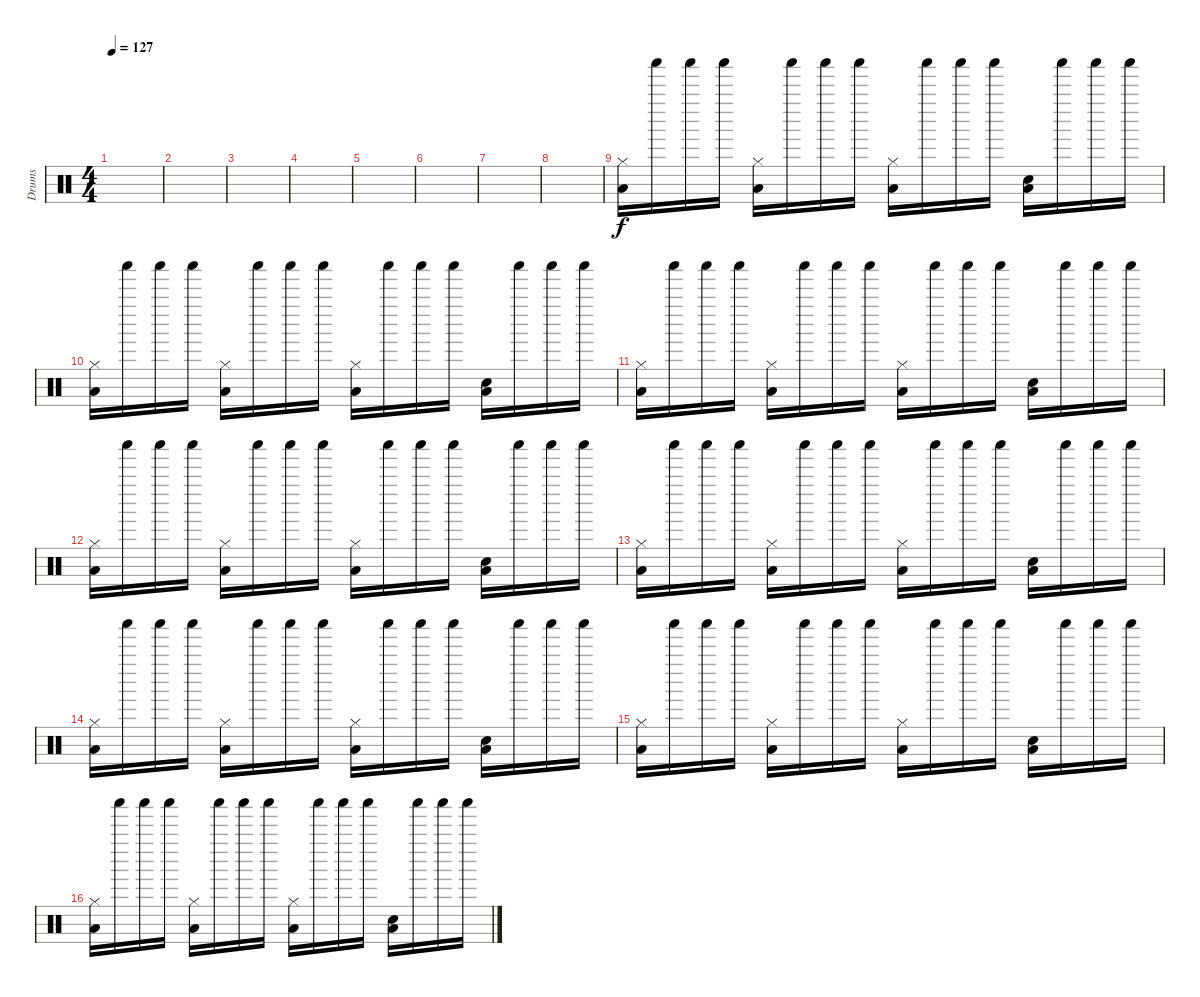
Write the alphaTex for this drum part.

\track ("Drums" "Drums") {instrument percussion}
\staff {score}
\articulation defaults
\ts (4 4)
\tempo 127
\clef neutral
\ks c
|
|
|
|
|
|
|
|
("Hi-Hat (closed)" "Low Tom (hit)").16 "Shaker (hit)".16 "Shaker (hit)".16 "Shaker (hit)".16 ("Hi-Hat (closed)" "Low Tom (hit)").16 "Shaker (hit)".16 "Shaker (hit)".16 "Shaker (hit)".16 ("Hi-Hat (closed)" "Low Tom (hit)").16 "Shaker (hit)".16 "Shaker (hit)".16 "Shaker (hit)".16 ("Hand Clap (hit)" "Low Tom (hit)").16 "Shaker (hit)".16 "Shaker (hit)".16 "Shaker (hit)".16 |
("Hi-Hat (closed)" "Low Tom (hit)").16 "Shaker (hit)".16 "Shaker (hit)".16 "Shaker (hit)".16 ("Hi-Hat (closed)" "Low Tom (hit)").16 "Shaker (hit)".16 "Shaker (hit)".16 "Shaker (hit)".16 ("Hi-Hat (closed)" "Low Tom (hit)").16 "Shaker (hit)".16 "Shaker (hit)".16 "Shaker (hit)".16 ("Hand Clap (hit)" "Low Tom (hit)").16 "Shaker (hit)".16 "Shaker (hit)".16 "Shaker (hit)".16 |
("Hi-Hat (closed)" "Low Tom (hit)").16 "Shaker (hit)".16 "Shaker (hit)".16 "Shaker (hit)".16 ("Hi-Hat (closed)" "Low Tom (hit)").16 "Shaker (hit)".16 "Shaker (hit)".16 "Shaker (hit)".16 ("Hi-Hat (closed)" "Low Tom (hit)").16 "Shaker (hit)".16 "Shaker (hit)".16 "Shaker (hit)".16 ("Hand Clap (hit)" "Low Tom (hit)").16 "Shaker (hit)".16 "Shaker (hit)".16 "Shaker (hit)".16 |
("Hi-Hat (closed)" "Low Tom (hit)").16 "Shaker (hit)".16 "Shaker (hit)".16 "Shaker (hit)".16 ("Hi-Hat (closed)" "Low Tom (hit)").16 "Shaker (hit)".16 "Shaker (hit)".16 "Shaker (hit)".16 ("Hi-Hat (closed)" "Low Tom (hit)").16 "Shaker (hit)".16 "Shaker (hit)".16 "Shaker (hit)".16 ("Hand Clap (hit)" "Low Tom (hit)").16 "Shaker (hit)".16 "Shaker (hit)".16 "Shaker (hit)".16 |
("Hi-Hat (closed)" "Low Tom (hit)").16 "Shaker (hit)".16 "Shaker (hit)".16 "Shaker (hit)".16 ("Hi-Hat (closed)" "Low Tom (hit)").16 "Shaker (hit)".16 "Shaker (hit)".16 "Shaker (hit)".16 ("Hi-Hat (closed)" "Low Tom (hit)").16 "Shaker (hit)".16 "Shaker (hit)".16 "Shaker (hit)".16 ("Hand Clap (hit)" "Low Tom (hit)").16 "Shaker (hit)".16 "Shaker (hit)".16 "Shaker (hit)".16 |
("Hi-Hat (closed)" "Low Tom (hit)").16 "Shaker (hit)".16 "Shaker (hit)".16 "Shaker (hit)".16 ("Hi-Hat (closed)" "Low Tom (hit)").16 "Shaker (hit)".16 "Shaker (hit)".16 "Shaker (hit)".16 ("Hi-Hat (closed)" "Low Tom (hit)").16 "Shaker (hit)".16 "Shaker (hit)".16 "Shaker (hit)".16 ("Hand Clap (hit)" "Low Tom (hit)").16 "Shaker (hit)".16 "Shaker (hit)".16 "Shaker (hit)".16 |
("Hi-Hat (closed)" "Low Tom (hit)").16 "Shaker (hit)".16 "Shaker (hit)".16 "Shaker (hit)".16 ("Hi-Hat (closed)" "Low Tom (hit)").16 "Shaker (hit)".16 "Shaker (hit)".16 "Shaker (hit)".16 ("Hi-Hat (closed)" "Low Tom (hit)").16 "Shaker (hit)".16 "Shaker (hit)".16 "Shaker (hit)".16 ("Hand Clap (hit)" "Low Tom (hit)").16 "Shaker (hit)".16 "Shaker (hit)".16 "Shaker (hit)".16 |
("Hi-Hat (closed)" "Low Tom (hit)").16 "Shaker (hit)".16 "Shaker (hit)".16 "Shaker (hit)".16 ("Hi-Hat (closed)" "Low Tom (hit)").16 "Shaker (hit)".16 "Shaker (hit)".16 "Shaker (hit)".16 ("Hi-Hat (closed)" "Low Tom (hit)").16 "Shaker (hit)".16 "Shaker (hit)".16 "Shaker (hit)".16 ("Hand Clap (hit)" "Low Tom (hit)").16 "Shaker (hit)".16 "Shaker (hit)".16 "Shaker (hit)".16
